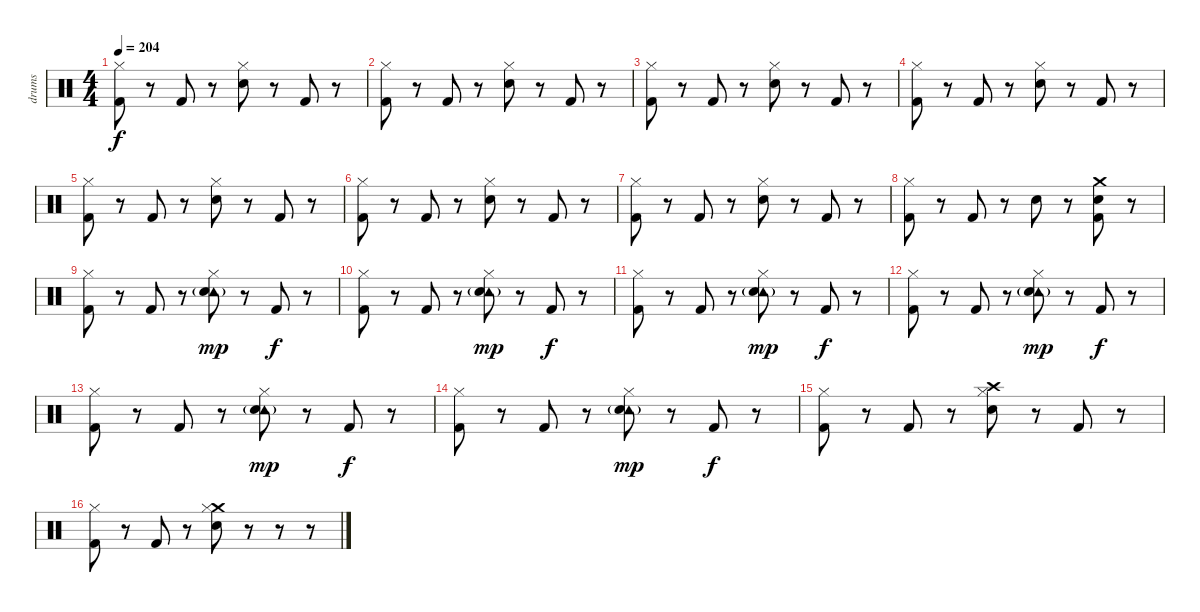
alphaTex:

\track ("drums" "drums") {instrument percussion}
\staff {score}
\articulation defaults
\ts (4 4)
\tempo 204
\clef neutral
\ks c
("Hi-Hat (closed)" "Kick (hit) 2").8{dy f} r.8 "Kick (hit) 2".8 r.8 ("Hi-Hat (closed)" "Snare (hit) 2").8 r.8 "Kick (hit) 2".8 r.8 |
("Hi-Hat (closed)" "Kick (hit) 2").8 r.8 "Kick (hit) 2".8 r.8 ("Hi-Hat (closed)" "Snare (hit) 2").8 r.8 "Kick (hit) 2".8 r.8 |
("Hi-Hat (closed)" "Kick (hit) 2").8 r.8 "Kick (hit) 2".8 r.8 ("Hi-Hat (closed)" "Snare (hit) 2").8 r.8 "Kick (hit) 2".8 r.8 |
("Hi-Hat (closed)" "Kick (hit) 2").8 r.8 "Kick (hit) 2".8 r.8 ("Hi-Hat (closed)" "Snare (hit) 2").8 r.8 "Kick (hit) 2".8 r.8 |
("Hi-Hat (closed)" "Kick (hit) 2").8 r.8 "Kick (hit) 2".8 r.8 ("Hi-Hat (closed)" "Snare (hit) 2").8 r.8 "Kick (hit) 2".8 r.8 |
("Hi-Hat (closed)" "Kick (hit) 2").8 r.8 "Kick (hit) 2".8 r.8 ("Hi-Hat (closed)" "Snare (hit) 2").8 r.8 "Kick (hit) 2".8 r.8 |
("Hi-Hat (closed)" "Kick (hit) 2").8 r.8 "Kick (hit) 2".8 r.8 ("Hi-Hat (closed)" "Snare (hit) 2").8 r.8 "Kick (hit) 2".8 r.8 |
("Hi-Hat (closed)" "Kick (hit) 2").8 r.8 "Kick (hit) 2".8 r.8 "Snare (hit) 2".8 r.8 ("Crash medium (hit)" "Snare (hit) 2" "Kick (hit) 2").8 r.8 |
("Hi-Hat (closed)" "Kick (hit) 2").8 r.8 "Kick (hit) 2".8 r.8 ("Tambourine (hit)"{g} "Hi-Hat (closed)" "Snare (hit) 2").8{dy mp} r.8 "Kick (hit) 2".8{dy f} r.8 |
("Hi-Hat (closed)" "Kick (hit) 2").8 r.8 "Kick (hit) 2".8 r.8 ("Tambourine (hit)"{g} "Hi-Hat (closed)" "Snare (hit) 2").8{dy mp} r.8 "Kick (hit) 2".8{dy f} r.8 |
("Hi-Hat (closed)" "Kick (hit) 2").8 r.8 "Kick (hit) 2".8 r.8 ("Tambourine (hit)"{g} "Hi-Hat (closed)" "Snare (hit) 2").8{dy mp} r.8 "Kick (hit) 2".8{dy f} r.8 |
("Hi-Hat (closed)" "Kick (hit) 2").8 r.8 "Kick (hit) 2".8 r.8 ("Tambourine (hit)"{g} "Hi-Hat (closed)" "Snare (hit) 2").8{dy mp} r.8 "Kick (hit) 2".8{dy f} r.8 |
("Hi-Hat (closed)" "Kick (hit) 2").8 r.8 "Kick (hit) 2".8 r.8 ("Tambourine (hit)"{g} "Hi-Hat (closed)" "Snare (hit) 2").8{dy mp} r.8 "Kick (hit) 2".8{dy f} r.8 |
("Hi-Hat (closed)" "Kick (hit) 2").8 r.8 "Kick (hit) 2".8 r.8 ("Tambourine (hit)"{g} "Hi-Hat (closed)" "Snare (hit) 2").8{dy mp} r.8 "Kick (hit) 2".8{dy f} r.8 |
("Hi-Hat (closed)" "Kick (hit) 2").8 r.8 "Kick (hit) 2".8 r.8 ("Crash high (hit)" "Hi-Hat (closed)" "Snare (hit) 2").8 r.8 "Kick (hit) 2".8 r.8 |
("Hi-Hat (closed)" "Kick (hit) 2").8 r.8 "Kick (hit) 2".8 r.8 ("Crash medium (hit)" "Hi-Hat (closed)" "Snare (hit) 2").8 r.8 r.8 r.8
